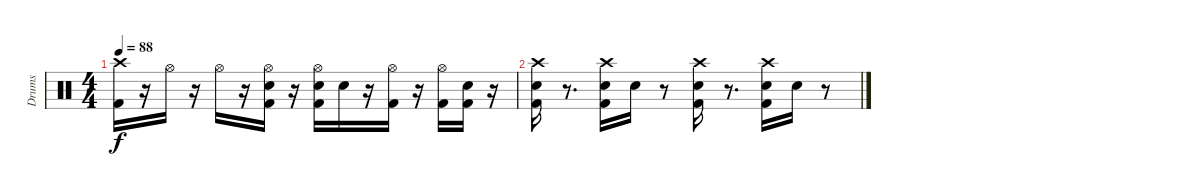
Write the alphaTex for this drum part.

\track ("Drums" "Drums") {instrument percussion}
\staff {score}
\articulation defaults
\ts (4 4)
\tempo 88
\clef neutral
\ks c
("Crash high (hit)" "Kick (hit) 2").16{dy f} r.16 "Hi-Hat (open)".16 r.16 "Hi-Hat (open)".16 r.16 ("Hi-Hat (open)" "Snare (hit) 2" "Kick (hit) 2").16 r.16 ("Hi-Hat (open)" "Snare (hit) 2" "Kick (hit) 2").16 "Snare (hit) 2".16 r.16 ("Hi-Hat (open)" "Kick (hit) 2").16 r.16 ("Hi-Hat (open)" "Kick (hit) 2").16 ("Snare (hit) 2" "Kick (hit) 2").16 r.16 |
("Crash high (hit)" "Snare (hit) 2" "Kick (hit) 2").16 r.8{d} ("Crash high (hit)" "Snare (hit) 2" "Kick (hit) 2").16 "Snare (hit) 2".16 r.8 ("Crash high (hit)" "Snare (hit) 2" "Kick (hit) 2").16 r.8{d} ("Crash high (hit)" "Snare (hit) 2" "Kick (hit) 2").16 "Snare (hit) 2".16 r.8
